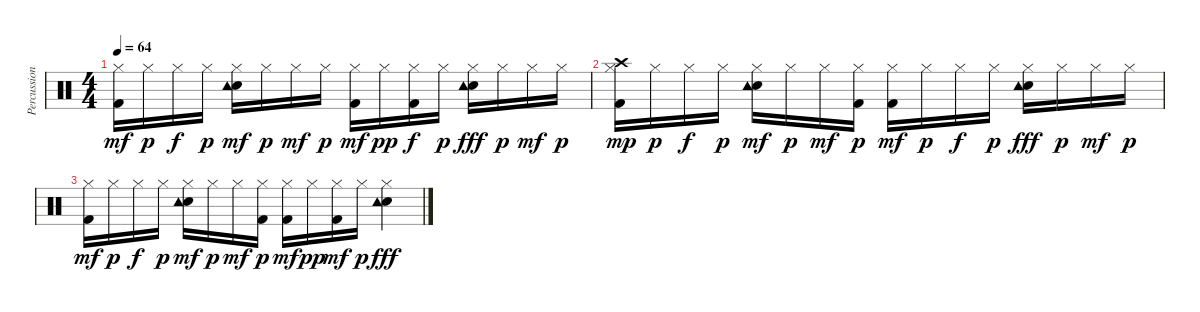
\track ("Percussioni" "Percussion") {instrument percussion}
\staff {score}
\articulation defaults
\ts (4 4)
\tempo 64
\clef neutral
\ks c
("Kick (hit) 2" "Hi-Hat (closed)").16{dy mf volume 4} "Hi-Hat (closed)".16{dy p} "Hi-Hat (closed)".16{dy f} "Hi-Hat (closed)".16{dy p} ("Electric Snare (hit)" "Hi-Hat (closed)" "Tambourine (hit)").16{dy mf} "Hi-Hat (closed)".16{dy p} "Hi-Hat (closed)".16{dy mf} "Hi-Hat (closed)".16{dy p} ("Kick (hit) 2" "Hi-Hat (closed)").16{dy mf} "Hi-Hat (closed)".16{dy pp} ("Kick (hit) 2" "Hi-Hat (closed)").16{dy f} "Hi-Hat (closed)".16{dy p} ("Electric Snare (hit)" "Hi-Hat (closed)" "Tambourine (hit)").16{dy fff} "Hi-Hat (closed)".16{dy p} "Hi-Hat (closed)".16{dy mf} "Hi-Hat (closed)".16{dy p} |
("Kick (hit) 2" "Hi-Hat (closed)" "Crash high (hit)").16{dy mp} "Hi-Hat (closed)".16{dy p} "Hi-Hat (closed)".16{dy f} "Hi-Hat (closed)".16{dy p} ("Electric Snare (hit)" "Hi-Hat (closed)" "Tambourine (hit)").16{dy mf} "Hi-Hat (closed)".16{dy p} "Hi-Hat (closed)".16{dy mf} ("Kick (hit) 2" "Hi-Hat (closed)").16{dy p} ("Kick (hit) 2" "Hi-Hat (closed)").16{dy mf} "Hi-Hat (closed)".16{dy p} "Hi-Hat (closed)".16{dy f} "Hi-Hat (closed)".16{dy p} ("Electric Snare (hit)" "Hi-Hat (closed)" "Tambourine (hit)").16{dy fff} "Hi-Hat (closed)".16{dy p} "Hi-Hat (closed)".16{dy mf} "Hi-Hat (closed)".16{dy p} |
("Kick (hit) 2" "Hi-Hat (closed)").16{dy mf volume 0} "Hi-Hat (closed)".16{dy p} "Hi-Hat (closed)".16{dy f} "Hi-Hat (closed)".16{dy p} ("Electric Snare (hit)" "Hi-Hat (closed)" "Tambourine (hit)").16{dy mf} "Hi-Hat (closed)".16{dy p} "Hi-Hat (closed)".16{dy mf} ("Kick (hit) 2" "Hi-Hat (closed)").16{dy p} ("Kick (hit) 2" "Hi-Hat (closed)").16{dy mf} "Hi-Hat (closed)".16{dy pp} ("Kick (hit) 2" "Hi-Hat (closed)").16{dy mf} "Hi-Hat (closed)".16{dy p} ("Electric Snare (hit)" "Hi-Hat (closed)" "Tambourine (hit)").4{dy fff}
